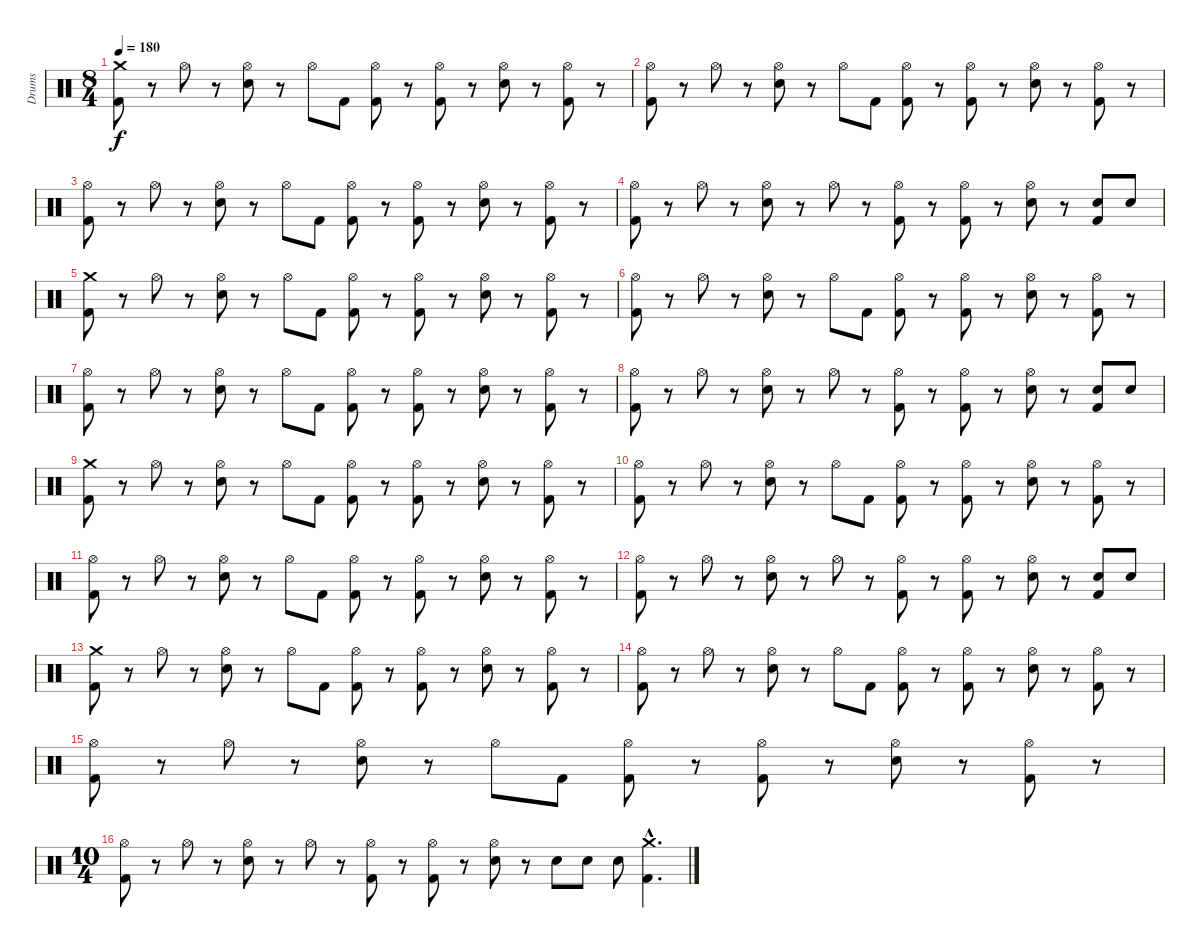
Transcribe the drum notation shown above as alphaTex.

\track ("Drums" "Drums") {instrument percussion}
\staff {score}
\articulation defaults
\ts (8 4)
\tempo 180
\clef neutral
\ks c
("Crash medium (hit)" "Kick (hit) 2").8{dy f} r.8 "Hi-Hat (open)".8 r.8 ("Hi-Hat (open)" "Snare (hit) 2").8 r.8 "Hi-Hat (open)".8 "Kick (hit) 2".8 ("Hi-Hat (open)" "Kick (hit) 2").8 r.8 ("Hi-Hat (open)" "Kick (hit) 2").8 r.8 ("Hi-Hat (open)" "Snare (hit) 2").8 r.8 ("Hi-Hat (open)" "Kick (hit) 2").8 r.8 |
("Hi-Hat (open)" "Kick (hit) 2").8 r.8 "Hi-Hat (open)".8 r.8 ("Hi-Hat (open)" "Snare (hit) 2").8 r.8 "Hi-Hat (open)".8 "Kick (hit) 2".8 ("Hi-Hat (open)" "Kick (hit) 2").8 r.8 ("Hi-Hat (open)" "Kick (hit) 2").8 r.8 ("Hi-Hat (open)" "Snare (hit) 2").8 r.8 ("Hi-Hat (open)" "Kick (hit) 2").8 r.8 |
("Hi-Hat (open)" "Kick (hit) 2").8 r.8 "Hi-Hat (open)".8 r.8 ("Hi-Hat (open)" "Snare (hit) 2").8 r.8 "Hi-Hat (open)".8 "Kick (hit) 2".8 ("Hi-Hat (open)" "Kick (hit) 2").8 r.8 ("Hi-Hat (open)" "Kick (hit) 2").8 r.8 ("Hi-Hat (open)" "Snare (hit) 2").8 r.8 ("Hi-Hat (open)" "Kick (hit) 2").8 r.8 |
("Hi-Hat (open)" "Kick (hit) 2").8 r.8 "Hi-Hat (open)".8 r.8 ("Hi-Hat (open)" "Snare (hit) 2").8 r.8 "Hi-Hat (open)".8 r.8 ("Hi-Hat (open)" "Kick (hit) 2").8 r.8 ("Hi-Hat (open)" "Kick (hit) 2").8 r.8 ("Hi-Hat (open)" "Snare (hit) 2").8 r.8 ("Snare (hit) 2" "Kick (hit) 2").8 "Snare (hit) 2".8 |
("Crash medium (hit)" "Kick (hit) 2").8 r.8 "Hi-Hat (open)".8 r.8 ("Hi-Hat (open)" "Snare (hit) 2").8 r.8 "Hi-Hat (open)".8 "Kick (hit) 2".8 ("Hi-Hat (open)" "Kick (hit) 2").8 r.8 ("Hi-Hat (open)" "Kick (hit) 2").8 r.8 ("Hi-Hat (open)" "Snare (hit) 2").8 r.8 ("Hi-Hat (open)" "Kick (hit) 2").8 r.8 |
("Hi-Hat (open)" "Kick (hit) 2").8 r.8 "Hi-Hat (open)".8 r.8 ("Hi-Hat (open)" "Snare (hit) 2").8 r.8 "Hi-Hat (open)".8 "Kick (hit) 2".8 ("Hi-Hat (open)" "Kick (hit) 2").8 r.8 ("Hi-Hat (open)" "Kick (hit) 2").8 r.8 ("Hi-Hat (open)" "Snare (hit) 2").8 r.8 ("Hi-Hat (open)" "Kick (hit) 2").8 r.8 |
("Hi-Hat (open)" "Kick (hit) 2").8 r.8 "Hi-Hat (open)".8 r.8 ("Hi-Hat (open)" "Snare (hit) 2").8 r.8 "Hi-Hat (open)".8 "Kick (hit) 2".8 ("Hi-Hat (open)" "Kick (hit) 2").8 r.8 ("Hi-Hat (open)" "Kick (hit) 2").8 r.8 ("Hi-Hat (open)" "Snare (hit) 2").8 r.8 ("Hi-Hat (open)" "Kick (hit) 2").8 r.8 |
("Hi-Hat (open)" "Kick (hit) 2").8 r.8 "Hi-Hat (open)".8 r.8 ("Hi-Hat (open)" "Snare (hit) 2").8 r.8 "Hi-Hat (open)".8 r.8 ("Hi-Hat (open)" "Kick (hit) 2").8 r.8 ("Hi-Hat (open)" "Kick (hit) 2").8 r.8 ("Hi-Hat (open)" "Snare (hit) 2").8 r.8 ("Snare (hit) 2" "Kick (hit) 2").8 "Snare (hit) 2".8 |
("Crash medium (hit)" "Kick (hit) 2").8 r.8 "Hi-Hat (open)".8 r.8 ("Hi-Hat (open)" "Snare (hit) 2").8 r.8 "Hi-Hat (open)".8 "Kick (hit) 2".8 ("Hi-Hat (open)" "Kick (hit) 2").8 r.8 ("Hi-Hat (open)" "Kick (hit) 2").8 r.8 ("Hi-Hat (open)" "Snare (hit) 2").8 r.8 ("Hi-Hat (open)" "Kick (hit) 2").8 r.8 |
("Hi-Hat (open)" "Kick (hit) 2").8 r.8 "Hi-Hat (open)".8 r.8 ("Hi-Hat (open)" "Snare (hit) 2").8 r.8 "Hi-Hat (open)".8 "Kick (hit) 2".8 ("Hi-Hat (open)" "Kick (hit) 2").8 r.8 ("Hi-Hat (open)" "Kick (hit) 2").8 r.8 ("Hi-Hat (open)" "Snare (hit) 2").8 r.8 ("Hi-Hat (open)" "Kick (hit) 2").8 r.8 |
("Hi-Hat (open)" "Kick (hit) 2").8 r.8 "Hi-Hat (open)".8 r.8 ("Hi-Hat (open)" "Snare (hit) 2").8 r.8 "Hi-Hat (open)".8 "Kick (hit) 2".8 ("Hi-Hat (open)" "Kick (hit) 2").8 r.8 ("Hi-Hat (open)" "Kick (hit) 2").8 r.8 ("Hi-Hat (open)" "Snare (hit) 2").8 r.8 ("Hi-Hat (open)" "Kick (hit) 2").8 r.8 |
("Hi-Hat (open)" "Kick (hit) 2").8 r.8 "Hi-Hat (open)".8 r.8 ("Hi-Hat (open)" "Snare (hit) 2").8 r.8 "Hi-Hat (open)".8 r.8 ("Hi-Hat (open)" "Kick (hit) 2").8 r.8 ("Hi-Hat (open)" "Kick (hit) 2").8 r.8 ("Hi-Hat (open)" "Snare (hit) 2").8 r.8 ("Snare (hit) 2" "Kick (hit) 2").8 "Snare (hit) 2".8 |
("Crash medium (hit)" "Kick (hit) 2").8 r.8 "Hi-Hat (open)".8 r.8 ("Hi-Hat (open)" "Snare (hit) 2").8 r.8 "Hi-Hat (open)".8 "Kick (hit) 2".8 ("Hi-Hat (open)" "Kick (hit) 2").8 r.8 ("Hi-Hat (open)" "Kick (hit) 2").8 r.8 ("Hi-Hat (open)" "Snare (hit) 2").8 r.8 ("Hi-Hat (open)" "Kick (hit) 2").8 r.8 |
("Hi-Hat (open)" "Kick (hit) 2").8 r.8 "Hi-Hat (open)".8 r.8 ("Hi-Hat (open)" "Snare (hit) 2").8 r.8 "Hi-Hat (open)".8 "Kick (hit) 2".8 ("Hi-Hat (open)" "Kick (hit) 2").8 r.8 ("Hi-Hat (open)" "Kick (hit) 2").8 r.8 ("Hi-Hat (open)" "Snare (hit) 2").8 r.8 ("Hi-Hat (open)" "Kick (hit) 2").8 r.8 |
("Hi-Hat (open)" "Kick (hit) 2").8 r.8 "Hi-Hat (open)".8 r.8 ("Hi-Hat (open)" "Snare (hit) 2").8 r.8 "Hi-Hat (open)".8 "Kick (hit) 2".8 ("Hi-Hat (open)" "Kick (hit) 2").8 r.8 ("Hi-Hat (open)" "Kick (hit) 2").8 r.8 ("Hi-Hat (open)" "Snare (hit) 2").8 r.8 ("Hi-Hat (open)" "Kick (hit) 2").8 r.8 |
\ts (10 4)
("Hi-Hat (open)" "Kick (hit) 2").8 r.8 "Hi-Hat (open)".8 r.8 ("Hi-Hat (open)" "Snare (hit) 2").8 r.8 "Hi-Hat (open)".8 r.8 ("Hi-Hat (open)" "Kick (hit) 2").8 r.8 ("Hi-Hat (open)" "Kick (hit) 2").8 r.8 ("Hi-Hat (open)" "Snare (hit) 2").8 r.8 "Snare (hit) 2".8 "Snare (hit) 2".8 "Snare (hit) 2".8 ("Crash medium (hit)"{hac} "Kick (hit) 2"{hac}).4{d}
